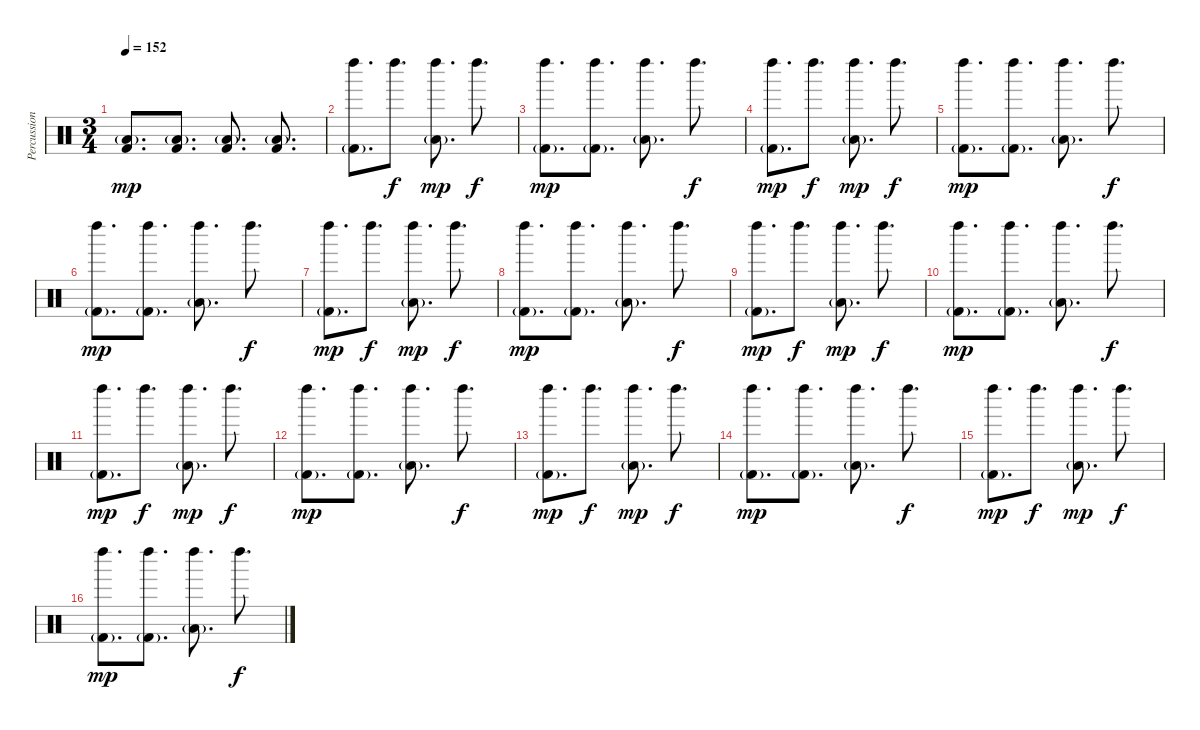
\track ("Percussion" "Percussion") {instrument percussion}
\staff {score}
\articulation defaults
\ts (3 4)
\tempo 152
\clef neutral
\ks c
("Kick (hit) 2" "Low Floor Tom (hit)"{g}).8{d dy mp} ("Kick (hit) 2" "Low Floor Tom (hit)"{g}).8{d} ("Kick (hit) 2" "Low Floor Tom (hit)"{g}).8{d} ("Kick (hit) 2" "Low Floor Tom (hit)"{g}).8{d} |
("Left Maraca (hit)" "Kick (hit) 2"{g}).8{d} "Left Maraca (hit)".8{d dy f} ("Left Maraca (hit)" "Low Tom (hit)"{g}).8{d dy mp} "Left Maraca (hit)".8{d dy f} |
("Left Maraca (hit)" "Kick (hit) 2"{g}).8{d dy mp} ("Left Maraca (hit)" "Kick (hit) 2"{g}).8{d} ("Left Maraca (hit)" "Low Tom (hit)"{g}).8{d} "Left Maraca (hit)".8{d dy f} |
("Left Maraca (hit)" "Kick (hit) 2"{g}).8{d dy mp} "Left Maraca (hit)".8{d dy f} ("Left Maraca (hit)" "Low Tom (hit)"{g}).8{d dy mp} "Left Maraca (hit)".8{d dy f} |
("Left Maraca (hit)" "Kick (hit) 2"{g}).8{d dy mp} ("Left Maraca (hit)" "Kick (hit) 2"{g}).8{d} ("Left Maraca (hit)" "Low Tom (hit)"{g}).8{d} "Left Maraca (hit)".8{d dy f} |
("Left Maraca (hit)" "Kick (hit) 2"{g}).8{d dy mp} ("Left Maraca (hit)" "Kick (hit) 2"{g}).8{d} ("Left Maraca (hit)" "Low Tom (hit)"{g}).8{d} "Left Maraca (hit)".8{d dy f} |
("Left Maraca (hit)" "Kick (hit) 2"{g}).8{d dy mp} "Left Maraca (hit)".8{d dy f} ("Left Maraca (hit)" "Low Tom (hit)"{g}).8{d dy mp} "Left Maraca (hit)".8{d dy f} |
("Left Maraca (hit)" "Kick (hit) 2"{g}).8{d dy mp} ("Left Maraca (hit)" "Kick (hit) 2"{g}).8{d} ("Left Maraca (hit)" "Low Tom (hit)"{g}).8{d} "Left Maraca (hit)".8{d dy f} |
("Left Maraca (hit)" "Kick (hit) 2"{g}).8{d dy mp} "Left Maraca (hit)".8{d dy f} ("Left Maraca (hit)" "Low Tom (hit)"{g}).8{d dy mp} "Left Maraca (hit)".8{d dy f} |
("Left Maraca (hit)" "Kick (hit) 2"{g}).8{d dy mp} ("Left Maraca (hit)" "Kick (hit) 2"{g}).8{d} ("Left Maraca (hit)" "Low Tom (hit)"{g}).8{d} "Left Maraca (hit)".8{d dy f} |
("Left Maraca (hit)" "Kick (hit) 2"{g}).8{d dy mp} "Left Maraca (hit)".8{d dy f} ("Left Maraca (hit)" "Low Tom (hit)"{g}).8{d dy mp} "Left Maraca (hit)".8{d dy f} |
("Left Maraca (hit)" "Kick (hit) 2"{g}).8{d dy mp} ("Left Maraca (hit)" "Kick (hit) 2"{g}).8{d} ("Left Maraca (hit)" "Low Tom (hit)"{g}).8{d} "Left Maraca (hit)".8{d dy f} |
("Left Maraca (hit)" "Kick (hit) 2"{g}).8{d dy mp} "Left Maraca (hit)".8{d dy f} ("Left Maraca (hit)" "Low Tom (hit)"{g}).8{d dy mp} "Left Maraca (hit)".8{d dy f} |
("Left Maraca (hit)" "Kick (hit) 2"{g}).8{d dy mp} ("Left Maraca (hit)" "Kick (hit) 2"{g}).8{d} ("Left Maraca (hit)" "Low Tom (hit)"{g}).8{d} "Left Maraca (hit)".8{d dy f} |
("Left Maraca (hit)" "Kick (hit) 2"{g}).8{d dy mp} "Left Maraca (hit)".8{d dy f} ("Left Maraca (hit)" "Low Tom (hit)"{g}).8{d dy mp} "Left Maraca (hit)".8{d dy f} |
("Left Maraca (hit)" "Kick (hit) 2"{g}).8{d dy mp} ("Left Maraca (hit)" "Kick (hit) 2"{g}).8{d} ("Left Maraca (hit)" "Low Tom (hit)"{g}).8{d} "Left Maraca (hit)".8{d dy f}
